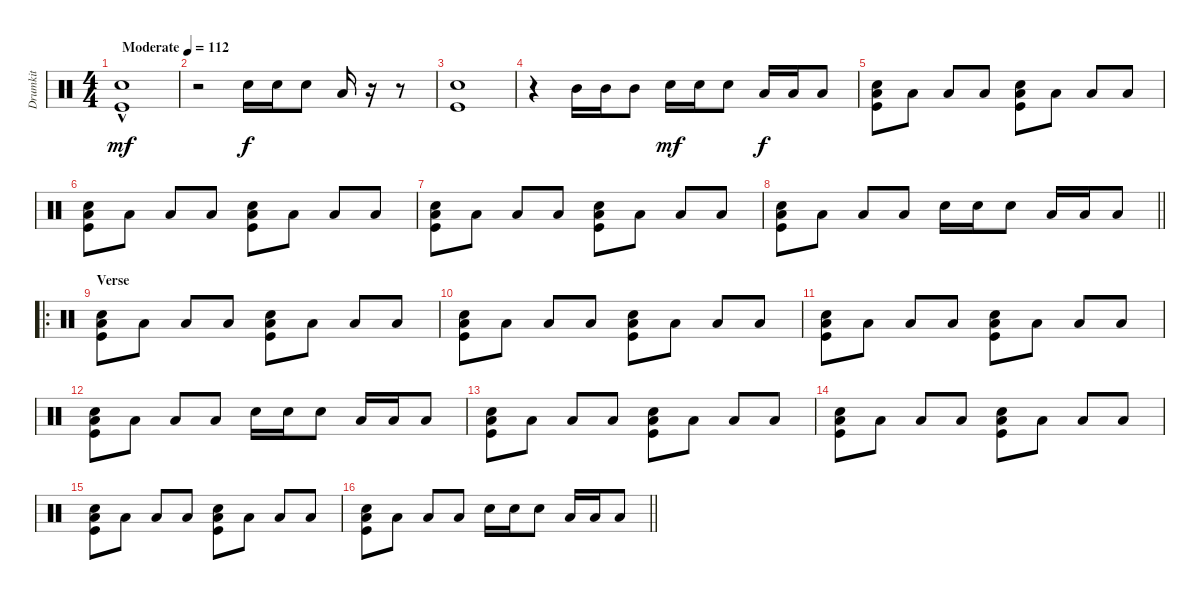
\track ("Drumkit" "Drumkit") {instrument percussion}
\staff {score}
\articulation defaults
\ts (4 4)
\tempo (112 "Moderate")
\clef neutral
\ks c
("Snare (hit) 2"{hac} "Kick (hit)"{hac}).1{dy mf} |
r.2 "Snare (hit) 2".16{dy f} "Snare (hit) 2".16 "Snare (hit) 2".8 "Low Tom (hit)".16 r.16 r.8 |
("Snare (hit) 2" "Kick (hit)").1 |
r.4 "Mid Tom (hit)".16 "Mid Tom (hit)".16 "Mid Tom (hit)".8 "Snare (hit) 2".16{dy mf} "Snare (hit) 2".16 "Snare (hit) 2".8 "Low Tom (hit)".16{dy f} "Low Tom (hit)".16 "Low Tom (hit)".8 |
("Snare (hit) 2" "Low Floor Tom (hit)" "Kick (hit)").8 "Low Floor Tom (hit)".8 "Low Floor Tom (hit)".8 "Low Floor Tom (hit)".8 ("Snare (hit) 2" "Low Floor Tom (hit)" "Kick (hit)").8 "Low Floor Tom (hit)".8 "Low Floor Tom (hit)".8 "Low Floor Tom (hit)".8 |
("Snare (hit) 2" "Low Floor Tom (hit)" "Kick (hit)").8 "Low Floor Tom (hit)".8 "Low Floor Tom (hit)".8 "Low Floor Tom (hit)".8 ("Snare (hit) 2" "Low Floor Tom (hit)" "Kick (hit)").8 "Low Floor Tom (hit)".8 "Low Floor Tom (hit)".8 "Low Floor Tom (hit)".8 |
("Snare (hit) 2" "Low Floor Tom (hit)" "Kick (hit)").8 "Low Floor Tom (hit)".8 "Low Floor Tom (hit)".8 "Low Floor Tom (hit)".8 ("Snare (hit) 2" "Low Floor Tom (hit)" "Kick (hit)").8 "Low Floor Tom (hit)".8 "Low Floor Tom (hit)".8 "Low Floor Tom (hit)".8 |
\barLineRight lightlight
("Snare (hit) 2" "Low Floor Tom (hit)" "Kick (hit)").8 "Low Floor Tom (hit)".8 "Low Floor Tom (hit)".8 "Low Floor Tom (hit)".8 "Snare (hit) 2".16 "Snare (hit) 2".16 "Snare (hit) 2".8 "Low Tom (hit)".16 "Low Tom (hit)".16 "Low Tom (hit)".8 |
\ro
\section ("" "Verse")
("Snare (hit) 2" "Low Floor Tom (hit)" "Kick (hit)").8 "Low Floor Tom (hit)".8 "Low Floor Tom (hit)".8 "Low Floor Tom (hit)".8 ("Snare (hit) 2" "Low Floor Tom (hit)" "Kick (hit)").8 "Low Floor Tom (hit)".8 "Low Floor Tom (hit)".8 "Low Floor Tom (hit)".8 |
("Snare (hit) 2" "Low Floor Tom (hit)" "Kick (hit)").8 "Low Floor Tom (hit)".8 "Low Floor Tom (hit)".8 "Low Floor Tom (hit)".8 ("Snare (hit) 2" "Low Floor Tom (hit)" "Kick (hit)").8 "Low Floor Tom (hit)".8 "Low Floor Tom (hit)".8 "Low Floor Tom (hit)".8 |
("Snare (hit) 2" "Low Floor Tom (hit)" "Kick (hit)").8 "Low Floor Tom (hit)".8 "Low Floor Tom (hit)".8 "Low Floor Tom (hit)".8 ("Snare (hit) 2" "Low Floor Tom (hit)" "Kick (hit)").8 "Low Floor Tom (hit)".8 "Low Floor Tom (hit)".8 "Low Floor Tom (hit)".8 |
("Snare (hit) 2" "Low Floor Tom (hit)" "Kick (hit)").8 "Low Floor Tom (hit)".8 "Low Floor Tom (hit)".8 "Low Floor Tom (hit)".8 "Snare (hit) 2".16 "Snare (hit) 2".16 "Snare (hit) 2".8 "Low Tom (hit)".16 "Low Tom (hit)".16 "Low Tom (hit)".8 |
("Snare (hit) 2" "Low Floor Tom (hit)" "Kick (hit)").8 "Low Floor Tom (hit)".8 "Low Floor Tom (hit)".8 "Low Floor Tom (hit)".8 ("Snare (hit) 2" "Low Floor Tom (hit)" "Kick (hit)").8 "Low Floor Tom (hit)".8 "Low Floor Tom (hit)".8 "Low Floor Tom (hit)".8 |
("Snare (hit) 2" "Low Floor Tom (hit)" "Kick (hit)").8 "Low Floor Tom (hit)".8 "Low Floor Tom (hit)".8 "Low Floor Tom (hit)".8 ("Snare (hit) 2" "Low Floor Tom (hit)" "Kick (hit)").8 "Low Floor Tom (hit)".8 "Low Floor Tom (hit)".8 "Low Floor Tom (hit)".8 |
("Snare (hit) 2" "Low Floor Tom (hit)" "Kick (hit)").8 "Low Floor Tom (hit)".8 "Low Floor Tom (hit)".8 "Low Floor Tom (hit)".8 ("Snare (hit) 2" "Low Floor Tom (hit)" "Kick (hit)").8 "Low Floor Tom (hit)".8 "Low Floor Tom (hit)".8 "Low Floor Tom (hit)".8 |
\barLineRight lightlight
("Snare (hit) 2" "Low Floor Tom (hit)" "Kick (hit)").8 "Low Floor Tom (hit)".8 "Low Floor Tom (hit)".8 "Low Floor Tom (hit)".8 "Snare (hit) 2".16 "Snare (hit) 2".16 "Snare (hit) 2".8 "Low Tom (hit)".16 "Low Tom (hit)".16 "Low Tom (hit)".8
